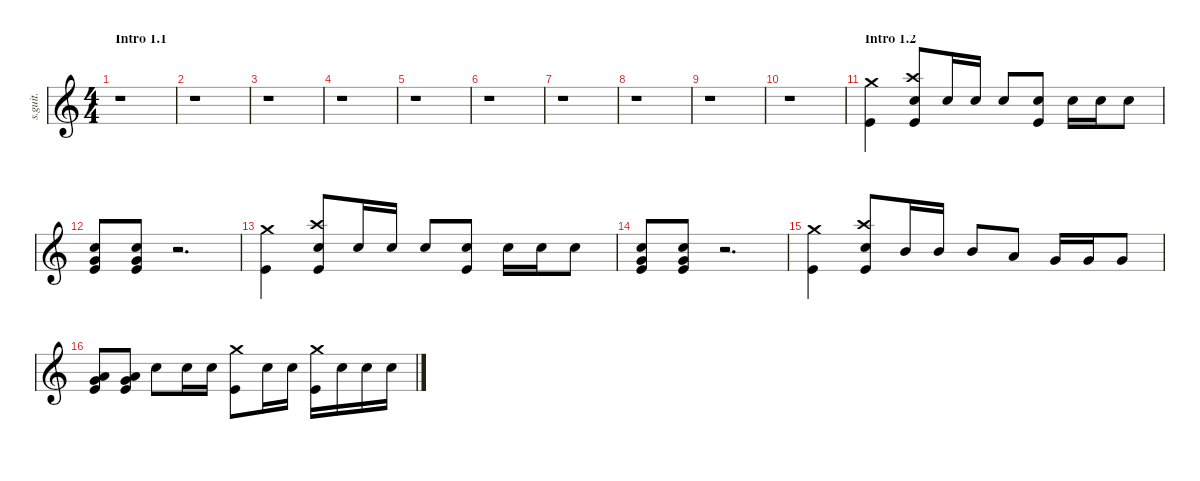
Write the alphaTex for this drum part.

\defaultSystemsLayout 4
\hideDynamics
\bracketExtendMode nobrackets
\track ("Joey Jordison" "s.guit.") {instrument percussion}
\staff {score}
\articulation defaults
\ts (4 4)
\beaming (8 2 2 2 2)
\section ("" "Intro 1.1")
\tempo (192 hide)
\clef g2
\ks c
r.1{dy ff} |
r.1 |
r.1 |
r.1 |
r.1 |
r.1 |
r.1 |
r.1 |
r.1 |
r.1 |
\section ("" "Intro 1.2")
("Crash medium (hit)" "Kick (hit)").4{lyrics (0 "") lyrics (1 "") lyrics (2 "") lyrics (3 "") lyrics (4 "")} ("Crash high (hit)" "Snare (hit) 2" "Kick (hit)").8{lyrics (0 "") lyrics (1 "") lyrics (2 "") lyrics (3 "") lyrics (4 "")} "Snare (hit) 2".16{lyrics (0 "") lyrics (1 "") lyrics (2 "") lyrics (3 "") lyrics (4 "")} "Snare (hit) 2".16{lyrics (0 "") lyrics (1 "") lyrics (2 "") lyrics (3 "") lyrics (4 "")} "Snare (hit) 2".8{lyrics (0 "") lyrics (1 "") lyrics (2 "") lyrics (3 "") lyrics (4 "")} ("Snare (hit) 2" "Kick (hit)").8{lyrics (0 "") lyrics (1 "") lyrics (2 "") lyrics (3 "") lyrics (4 "")} "Snare (hit) 2".16{lyrics (0 "") lyrics (1 "") lyrics (2 "") lyrics (3 "") lyrics (4 "")} "Snare (hit) 2".16{lyrics (0 "") lyrics (1 "") lyrics (2 "") lyrics (3 "") lyrics (4 "")} "Snare (hit) 2".8{lyrics (0 "") lyrics (1 "") lyrics (2 "") lyrics (3 "") lyrics (4 "")} |
("Snare (hit) 2" "Kick (hit)" "Very Low Tom (hit)").8{lyrics (0 "") lyrics (1 "") lyrics (2 "") lyrics (3 "") lyrics (4 "")} ("Snare (hit) 2" "Very Low Tom (hit)" "Kick (hit)").8{lyrics (0 "") lyrics (1 "") lyrics (2 "") lyrics (3 "") lyrics (4 "")} r.2{d} |
("Crash medium (hit)" "Kick (hit)").4{lyrics (0 "") lyrics (1 "") lyrics (2 "") lyrics (3 "") lyrics (4 "")} ("Crash high (hit)" "Snare (hit) 2" "Kick (hit)").8{lyrics (0 "") lyrics (1 "") lyrics (2 "") lyrics (3 "") lyrics (4 "")} "Snare (hit) 2".16{lyrics (0 "") lyrics (1 "") lyrics (2 "") lyrics (3 "") lyrics (4 "")} "Snare (hit) 2".16{lyrics (0 "") lyrics (1 "") lyrics (2 "") lyrics (3 "") lyrics (4 "")} "Snare (hit) 2".8{lyrics (0 "") lyrics (1 "") lyrics (2 "") lyrics (3 "") lyrics (4 "")} ("Snare (hit) 2" "Kick (hit)").8{lyrics (0 "") lyrics (1 "") lyrics (2 "") lyrics (3 "") lyrics (4 "")} "Snare (hit) 2".16{lyrics (0 "") lyrics (1 "") lyrics (2 "") lyrics (3 "") lyrics (4 "")} "Snare (hit) 2".16{lyrics (0 "") lyrics (1 "") lyrics (2 "") lyrics (3 "") lyrics (4 "")} "Snare (hit) 2".8{lyrics (0 "") lyrics (1 "") lyrics (2 "") lyrics (3 "") lyrics (4 "")} |
("Snare (hit) 2" "Kick (hit)" "Very Low Tom (hit)").8{lyrics (0 "") lyrics (1 "") lyrics (2 "") lyrics (3 "") lyrics (4 "")} ("Snare (hit) 2" "Very Low Tom (hit)" "Kick (hit)").8{lyrics (0 "") lyrics (1 "") lyrics (2 "") lyrics (3 "") lyrics (4 "")} r.2{d} |
("Crash medium (hit)" "Kick (hit)").4{lyrics (0 "") lyrics (1 "") lyrics (2 "") lyrics (3 "") lyrics (4 "")} ("Crash high (hit)" "Snare (hit) 2" "Kick (hit)").8{lyrics (0 "") lyrics (1 "") lyrics (2 "") lyrics (3 "") lyrics (4 "")} "Mid Tom (hit)".16{lyrics (0 "") lyrics (1 "") lyrics (2 "") lyrics (3 "") lyrics (4 "")} "Mid Tom (hit)".16{lyrics (0 "") lyrics (1 "") lyrics (2 "") lyrics (3 "") lyrics (4 "")} "Mid Tom (hit)".8{lyrics (0 "") lyrics (1 "") lyrics (2 "") lyrics (3 "") lyrics (4 "")} "Low Tom (hit)".8{lyrics (0 "") lyrics (1 "") lyrics (2 "") lyrics (3 "") lyrics (4 "")} "Very Low Tom (hit)".16{lyrics (0 "") lyrics (1 "") lyrics (2 "") lyrics (3 "") lyrics (4 "")} "Very Low Tom (hit)".16{lyrics (0 "") lyrics (1 "") lyrics (2 "") lyrics (3 "") lyrics (4 "")} "Very Low Tom (hit)".8{lyrics (0 "") lyrics (1 "") lyrics (2 "") lyrics (3 "") lyrics (4 "")} |
("Low Floor Tom (hit)" "Kick (hit)" "Very Low Tom (hit)").8{lyrics (0 "") lyrics (1 "") lyrics (2 "") lyrics (3 "") lyrics (4 "")} ("Low Floor Tom (hit)" "Kick (hit)" "Very Low Tom (hit)").8{lyrics (0 "") lyrics (1 "") lyrics (2 "") lyrics (3 "") lyrics (4 "")} "Snare (hit) 2".8{lyrics (0 "") lyrics (1 "") lyrics (2 "") lyrics (3 "") lyrics (4 "")} "Snare (hit) 2".16{lyrics (0 "") lyrics (1 "") lyrics (2 "") lyrics (3 "") lyrics (4 "")} "Snare (hit) 2".16{lyrics (0 "") lyrics (1 "") lyrics (2 "") lyrics (3 "") lyrics (4 "")} ("Crash medium (hit)" "Kick (hit)").8{lyrics (0 "") lyrics (1 "") lyrics (2 "") lyrics (3 "") lyrics (4 "")} "Snare (hit) 2".16{lyrics (0 "") lyrics (1 "") lyrics (2 "") lyrics (3 "") lyrics (4 "")} "Snare (hit) 2".16{lyrics (0 "") lyrics (1 "") lyrics (2 "") lyrics (3 "") lyrics (4 "")} ("Kick (hit)" "Crash medium (hit)").16{lyrics (0 "") lyrics (1 "") lyrics (2 "") lyrics (3 "") lyrics (4 "")} "Snare (hit) 2".16{lyrics (0 "") lyrics (1 "") lyrics (2 "") lyrics (3 "") lyrics (4 "")} "Snare (hit) 2".16{lyrics (0 "") lyrics (1 "") lyrics (2 "") lyrics (3 "") lyrics (4 "")} "Snare (hit) 2".16{lyrics (0 "") lyrics (1 "") lyrics (2 "") lyrics (3 "") lyrics (4 "")}
